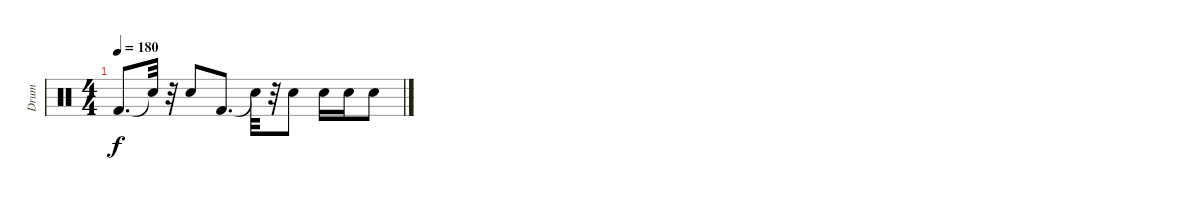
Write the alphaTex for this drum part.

\track ("Drum" "Drum") {instrument percussion}
\staff {score}
\articulation defaults
\ts (4 4)
\tempo 180
\clef neutral
\ks c "Kick (hit) 2".8{d dy f} "Snare (hit)"{t}.32
r.32 "Snare (hit) 2".8 "Kick (hit) 2".8{d} "Snare (hit)"{t}.32 r.32 "Snare (hit) 2".8 "Snare (hit) 2".16 "Snare (hit) 2".16 "Snare (hit) 2".8
